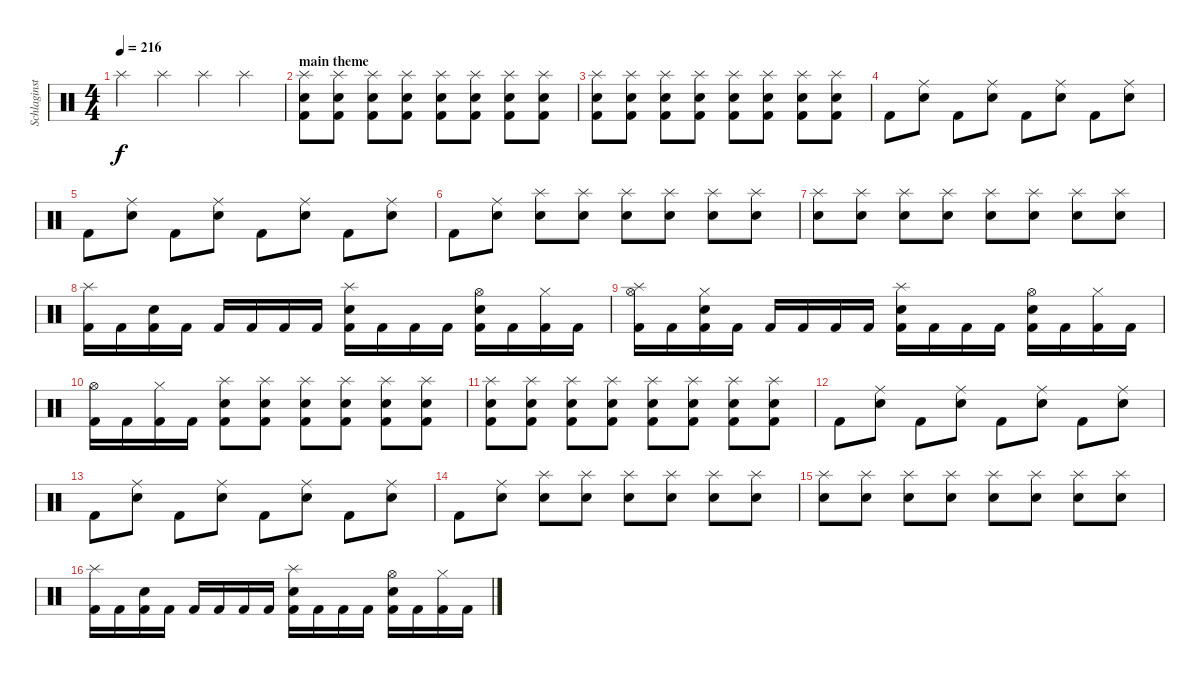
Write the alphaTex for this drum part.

\track ("Schlaginstrumente - Auswahl" "Schlaginst") {instrument percussion}
\staff {score}
\articulation defaults
\ts (4 4)
\tempo 216
\clef neutral
\ks c "Splash (hit)".4{dy f} "Splash (hit)".4 "Splash (hit)".4 "Splash (hit)".4
|
\section ("" "main theme")
("Electric Snare (hit)" "Splash (hit)" "Kick (hit) 2").8 ("Electric Snare (hit)" "Splash (hit)" "Kick (hit) 2").8 ("Electric Snare (hit)" "Splash (hit)" "Kick (hit) 2").8 ("Electric Snare (hit)" "Splash (hit)" "Kick (hit) 2").8 ("Electric Snare (hit)" "Splash (hit)" "Kick (hit) 2").8 ("Electric Snare (hit)" "Splash (hit)" "Kick (hit) 2").8 ("Electric Snare (hit)" "Splash (hit)" "Kick (hit) 2").8 ("Electric Snare (hit)" "Splash (hit)" "Kick (hit) 2").8 |
("Electric Snare (hit)" "Splash (hit)" "Kick (hit) 2").8 ("Electric Snare (hit)" "Splash (hit)" "Kick (hit) 2").8 ("Electric Snare (hit)" "Splash (hit)" "Kick (hit) 2").8 ("Electric Snare (hit)" "Splash (hit)" "Kick (hit) 2").8 ("Electric Snare (hit)" "Splash (hit)" "Kick (hit) 2").8 ("Electric Snare (hit)" "Splash (hit)" "Kick (hit) 2").8 ("Electric Snare (hit)" "Splash (hit)" "Kick (hit) 2").8 ("Electric Snare (hit)" "Splash (hit)" "Kick (hit) 2").8 |
"Kick (hit) 2".8 ("Electric Snare (hit)" "Ride (middle)").8 "Kick (hit) 2".8 ("Electric Snare (hit)" "Ride (middle)").8 "Kick (hit) 2".8 ("Electric Snare (hit)" "Ride (middle)").8 "Kick (hit) 2".8 ("Electric Snare (hit)" "Ride (middle)").8 |
"Kick (hit) 2".8 ("Electric Snare (hit)" "Ride (middle)").8 "Kick (hit) 2".8 ("Electric Snare (hit)" "Ride (middle)").8 "Kick (hit) 2".8 ("Electric Snare (hit)" "Ride (middle)").8 "Kick (hit) 2".8 ("Electric Snare (hit)" "Ride (middle)").8 |
"Kick (hit) 2".8 ("Electric Snare (hit)" "Ride (middle)").8 ("Electric Snare (hit)" "Splash (hit)").8 ("Electric Snare (hit)" "Splash (hit)").8 ("Electric Snare (hit)" "Splash (hit)").8 ("Electric Snare (hit)" "Splash (hit)").8 ("Electric Snare (hit)" "Splash (hit)").8 ("Electric Snare (hit)" "Splash (hit)").8 |
("Electric Snare (hit)" "Splash (hit)").8 ("Electric Snare (hit)" "Splash (hit)").8 ("Electric Snare (hit)" "Splash (hit)").8 ("Electric Snare (hit)" "Splash (hit)").8 ("Electric Snare (hit)" "Splash (hit)").8 ("Electric Snare (hit)" "Splash (hit)").8 ("Electric Snare (hit)" "Splash (hit)").8 ("Electric Snare (hit)" "Splash (hit)").8 |
("Splash (hit)" "Kick (hit) 2").16 "Kick (hit) 2".16 ("Electric Snare (hit)" "Kick (hit) 2").16 "Kick (hit) 2".16 "Kick (hit) 2".16 "Kick (hit) 2".16 "Kick (hit) 2".16 "Kick (hit) 2".16 ("Electric Snare (hit)" "Splash (hit)" "Kick (hit) 2").16 "Kick (hit) 2".16 "Kick (hit) 2".16 "Kick (hit) 2".16 ("Electric Snare (hit)" "Hi-Hat (open)" "Kick (hit) 2").16 "Kick (hit) 2".16 ("Hi-Hat (closed)" "Kick (hit) 2").16 "Kick (hit) 2".16 |
("Splash (hit)" "Hi-Hat (open)" "Kick (hit) 2").16 "Kick (hit) 2".16 ("Electric Snare (hit)" "Hi-Hat (closed)" "Kick (hit) 2").16 "Kick (hit) 2".16 "Kick (hit) 2".16 "Kick (hit) 2".16 "Kick (hit) 2".16 "Kick (hit) 2".16 ("Electric Snare (hit)" "Splash (hit)" "Kick (hit) 2").16 "Kick (hit) 2".16 "Kick (hit) 2".16 "Kick (hit) 2".16 ("Electric Snare (hit)" "Hi-Hat (open)" "Kick (hit) 2").16 "Kick (hit) 2".16 ("Hi-Hat (closed)" "Kick (hit) 2").16 "Kick (hit) 2".16 |
("Hi-Hat (open)" "Kick (hit) 2").16 "Kick (hit) 2".16 ("Hi-Hat (closed)" "Kick (hit) 2").16 "Kick (hit) 2".16 ("Electric Snare (hit)" "Splash (hit)" "Kick (hit) 2").8 ("Electric Snare (hit)" "Splash (hit)" "Kick (hit) 2").8 ("Electric Snare (hit)" "Splash (hit)" "Kick (hit) 2").8 ("Electric Snare (hit)" "Splash (hit)" "Kick (hit) 2").8 ("Electric Snare (hit)" "Splash (hit)" "Kick (hit) 2").8 ("Electric Snare (hit)" "Splash (hit)" "Kick (hit) 2").8 |
("Electric Snare (hit)" "Splash (hit)" "Kick (hit) 2").8 ("Electric Snare (hit)" "Splash (hit)" "Kick (hit) 2").8 ("Electric Snare (hit)" "Splash (hit)" "Kick (hit) 2").8 ("Electric Snare (hit)" "Splash (hit)" "Kick (hit) 2").8 ("Electric Snare (hit)" "Splash (hit)" "Kick (hit) 2").8 ("Electric Snare (hit)" "Splash (hit)" "Kick (hit) 2").8 ("Electric Snare (hit)" "Splash (hit)" "Kick (hit) 2").8 ("Electric Snare (hit)" "Splash (hit)" "Kick (hit) 2").8 |
"Kick (hit) 2".8 ("Electric Snare (hit)" "Ride (middle)").8 "Kick (hit) 2".8 ("Electric Snare (hit)" "Ride (middle)").8 "Kick (hit) 2".8 ("Electric Snare (hit)" "Ride (middle)").8 "Kick (hit) 2".8 ("Electric Snare (hit)" "Ride (middle)").8 |
"Kick (hit) 2".8 ("Electric Snare (hit)" "Ride (middle)").8 "Kick (hit) 2".8 ("Electric Snare (hit)" "Ride (middle)").8 "Kick (hit) 2".8 ("Electric Snare (hit)" "Ride (middle)").8 "Kick (hit) 2".8 ("Electric Snare (hit)" "Ride (middle)").8 |
"Kick (hit) 2".8 ("Electric Snare (hit)" "Ride (middle)").8 ("Electric Snare (hit)" "Splash (hit)").8 ("Electric Snare (hit)" "Splash (hit)").8 ("Electric Snare (hit)" "Splash (hit)").8 ("Electric Snare (hit)" "Splash (hit)").8 ("Electric Snare (hit)" "Splash (hit)").8 ("Electric Snare (hit)" "Splash (hit)").8 |
("Electric Snare (hit)" "Splash (hit)").8 ("Electric Snare (hit)" "Splash (hit)").8 ("Electric Snare (hit)" "Splash (hit)").8 ("Electric Snare (hit)" "Splash (hit)").8 ("Electric Snare (hit)" "Splash (hit)").8 ("Electric Snare (hit)" "Splash (hit)").8 ("Electric Snare (hit)" "Splash (hit)").8 ("Electric Snare (hit)" "Splash (hit)").8 |
("Splash (hit)" "Kick (hit) 2").16 "Kick (hit) 2".16 ("Electric Snare (hit)" "Kick (hit) 2").16 "Kick (hit) 2".16 "Kick (hit) 2".16 "Kick (hit) 2".16 "Kick (hit) 2".16 "Kick (hit) 2".16 ("Electric Snare (hit)" "Splash (hit)" "Kick (hit) 2").16 "Kick (hit) 2".16 "Kick (hit) 2".16 "Kick (hit) 2".16 ("Electric Snare (hit)" "Hi-Hat (open)" "Kick (hit) 2").16 "Kick (hit) 2".16 ("Hi-Hat (closed)" "Kick (hit) 2").16 "Kick (hit) 2".16
